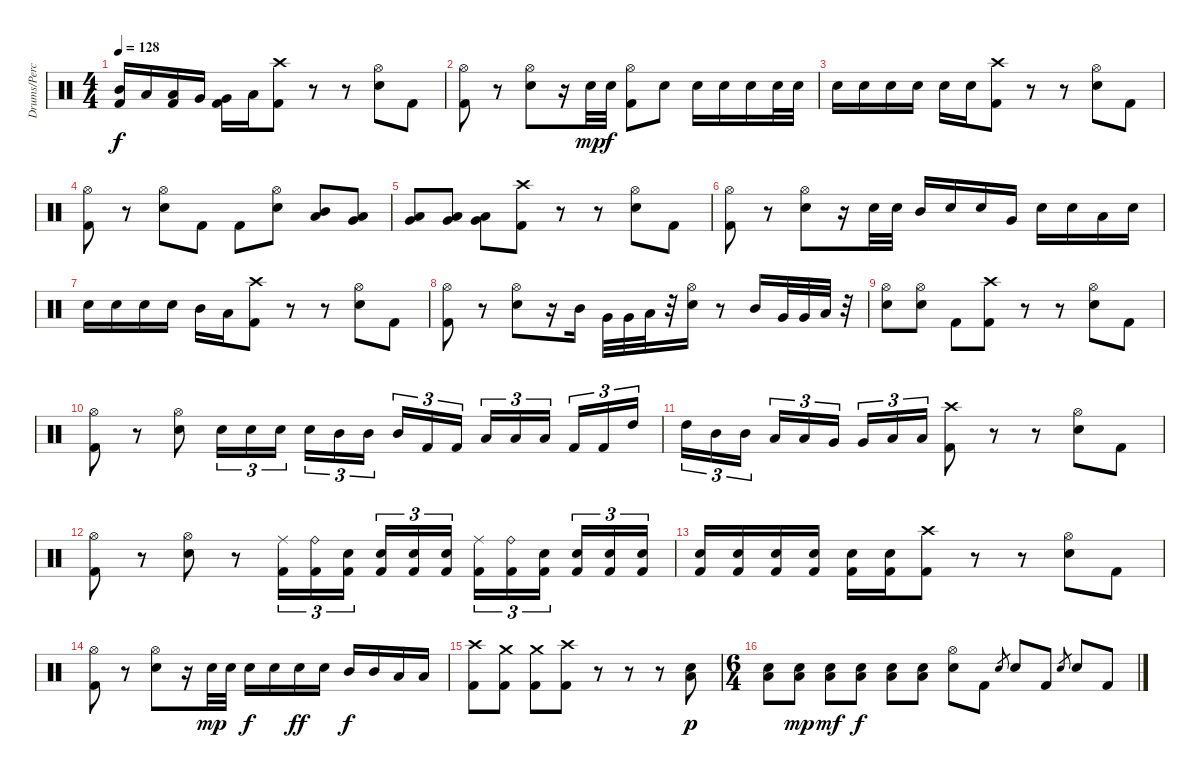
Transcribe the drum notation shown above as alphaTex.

\track ("Drums/Percussion" "Drums/Perc") {instrument percussion}
\staff {score}
\articulation defaults
\ts (4 4)
\tempo 128
\clef neutral
\ks c
("Mid Tom (hit)" "Kick (hit) 2").16{dy f} "Low Tom (hit)".16 ("Low Tom (hit)" "Kick (hit) 2").16 "Very Low Tom (hit)".16 ("Very Low Tom (hit)" "Kick (hit) 2").16 "Low Floor Tom (hit)".16 ("Crash high (hit)" "Kick (hit) 2").8 r.8 r.8 ("Hi-Hat (open)" "Electric Snare (hit)").8 "Kick (hit) 2".8 |
("Hi-Hat (open)" "Kick (hit) 2").8 r.8 ("Hi-Hat (open)" "Electric Snare (hit)").8 r.16 "Electric Snare (hit)".32{dy mp} "Electric Snare (hit)".32{dy f} ("Hi-Hat (open)" "Kick (hit) 2").8 "Electric Snare (hit)".8 "Electric Snare (hit)".16 "Electric Snare (hit)".16 "Electric Snare (hit)".16 "Electric Snare (hit)".32 "Electric Snare (hit)".32 |
"Electric Snare (hit)".16 "Electric Snare (hit)".16 "Electric Snare (hit)".16 "Electric Snare (hit)".16 "Electric Snare (hit)".16 "Electric Snare (hit)".16 ("Crash high (hit)" "Kick (hit) 2").8 r.8 r.8 ("Hi-Hat (open)" "Electric Snare (hit)").8 "Kick (hit) 2".8 |
("Hi-Hat (open)" "Kick (hit) 2").8 r.8 ("Hi-Hat (open)" "Electric Snare (hit)").8 "Kick (hit) 2".8 "Kick (hit) 2".8 ("Hi-Hat (open)" "Electric Snare (hit)").8 ("Mid Tom (hit)" "Low Tom (hit)").8 ("Low Tom (hit)" "Very Low Tom (hit)").8 |
("Very Low Tom (hit)" "Low Floor Tom (hit)").8 ("Very Low Tom (hit)" "Low Floor Tom (hit)").8 ("Very Low Tom (hit)" "Low Floor Tom (hit)").8 ("Crash high (hit)" "Kick (hit) 2").8 r.8 r.8 ("Hi-Hat (open)" "Electric Snare (hit)").8 "Kick (hit) 2".8 |
("Hi-Hat (open)" "Kick (hit) 2").8 r.8 ("Hi-Hat (open)" "Electric Snare (hit)").8 r.16 "Electric Snare (hit)".32 "Electric Snare (hit)".32 "Mid Tom (hit)".16 "Electric Snare (hit)".16 "Electric Snare (hit)".16 "Very Low Tom (hit)".16 "Electric Snare (hit)".16 "Electric Snare (hit)".16 "Low Tom (hit)".16 "Electric Snare (hit)".16 |
"Electric Snare (hit)".16 "Electric Snare (hit)".16 "Electric Snare (hit)".16 "Electric Snare (hit)".16 "Mid Tom (hit)".16 "Low Tom (hit)".16 ("Crash high (hit)" "Kick (hit) 2").8 r.8 r.8 ("Hi-Hat (open)" "Electric Snare (hit)").8 "Kick (hit) 2".8 |
("Hi-Hat (open)" "Kick (hit) 2").8 r.8 ("Hi-Hat (open)" "Electric Snare (hit)").8 r.16 "Mid Tom (hit)".16 "Very Low Tom (hit)".32 "Very Low Tom (hit)".32 "Low Floor Tom (hit)".32 r.32 ("Hi-Hat (open)" "Electric Snare (hit)").16 r.8 "Mid Tom (hit)".16 "Very Low Tom (hit)".32 "Very Low Tom (hit)".32 "Low Floor Tom (hit)".32 r.32 |
("Hi-Hat (open)" "Electric Snare (hit)").8 ("Hi-Hat (open)" "Electric Snare (hit)").8 "Kick (hit) 2".8 ("Crash high (hit)" "Kick (hit) 2").8 r.8 r.8 ("Hi-Hat (open)" "Electric Snare (hit)").8 "Kick (hit) 2".8 |
("Hi-Hat (open)" "Kick (hit) 2").8 r.8 ("Hi-Hat (open)" "Electric Snare (hit)").8 "Electric Snare (hit)".16{tu (3 2)} "Electric Snare (hit)".16{tu (3 2)} "Electric Snare (hit)".16{tu (3 2)} "Electric Snare (hit)".16{tu (3 2)} "Mid Tom (hit)".16{tu (3 2)} "Mid Tom (hit)".16{tu (3 2)} "Mid Tom (hit)".16{tu (3 2)} "Kick (hit) 2".16{tu (3 2)} "Kick (hit) 2".16{tu (3 2)} "Low Tom (hit)".16{tu (3 2)} "Low Tom (hit)".16{tu (3 2)} "Low Tom (hit)".16{tu (3 2)} "Kick (hit) 2".16{tu (3 2)} "Kick (hit) 2".16{tu (3 2)} "High Tom (hit)".16{tu (3 2)} |
"High Tom (hit)".16{tu (3 2)} "Mid Tom (hit)".16{tu (3 2)} "Mid Tom (hit)".16{tu (3 2)} "Low Tom (hit)".16{tu (3 2)} "Low Tom (hit)".16{tu (3 2)} "Very Low Tom (hit)".16{tu (3 2)} "Very Low Tom (hit)".16{tu (3 2)} "Low Floor Tom (hit)".16{tu (3 2)} "Low Floor Tom (hit)".16{tu (3 2)} ("Crash high (hit)" "Kick (hit) 2").8 r.8 r.8 ("Hi-Hat (open)" "Electric Snare (hit)").8 "Kick (hit) 2".8 |
("Hi-Hat (open)" "Kick (hit) 2").8 r.8 ("Hi-Hat (open)" "Electric Snare (hit)").8 r.8 ("Ride (middle)" "Kick (hit) 2").16{tu (3 2)} ("Ride (bell)" "Kick (hit) 2").16{tu (3 2)} ("Electric Snare (hit)" "Kick (hit) 2").16{tu (3 2)} ("Electric Snare (hit)" "Kick (hit) 2").16{tu (3 2)} ("Electric Snare (hit)" "Kick (hit) 2").16{tu (3 2)} ("Electric Snare (hit)" "Kick (hit) 2").16{tu (3 2)} ("Ride (middle)" "Kick (hit) 2").16{tu (3 2)} ("Ride (bell)" "Kick (hit) 2").16{tu (3 2)} ("Electric Snare (hit)" "Kick (hit) 2").16{tu (3 2)} ("Electric Snare (hit)" "Kick (hit) 2").16{tu (3 2)} ("Electric Snare (hit)" "Kick (hit) 2").16{tu (3 2)} ("Electric Snare (hit)" "Kick (hit) 2").16{tu (3 2)} |
("Electric Snare (hit)" "Kick (hit) 2").16 ("Electric Snare (hit)" "Kick (hit) 2").16 ("Electric Snare (hit)" "Kick (hit) 2").16 ("Electric Snare (hit)" "Kick (hit) 2").16 ("Electric Snare (hit)" "Kick (hit) 2").16 ("Electric Snare (hit)" "Kick (hit) 2").16 ("Crash high (hit)" "Kick (hit) 2").8 r.8 r.8 ("Hi-Hat (open)" "Electric Snare (hit)").8 "Kick (hit) 2".8 |
("Hi-Hat (open)" "Kick (hit) 2").8 r.8 ("Hi-Hat (open)" "Electric Snare (hit)").8 r.16 "Electric Snare (hit)".32{dy mp} "Electric Snare (hit)".32 "Electric Snare (hit)".16{dy f} "Electric Snare (hit)".16 "Electric Snare (hit)".16{dy ff} "Electric Snare (hit)".16 "Mid Tom (hit)".16{dy f} "Mid Tom (hit)".16 "Low Tom (hit)".16 "Low Tom (hit)".16 |
("Crash high (hit)" "Kick (hit) 2").8 ("Crash medium (hit)" "Kick (hit) 2").8 ("Crash medium (hit)" "Kick (hit) 2").8 ("Crash high (hit)" "Kick (hit) 2").8 r.8 r.8 r.8 ("Electric Snare (hit)" "Low Tom (hit)").8{dy p} |
\ts (6 4)
("Electric Snare (hit)" "Low Tom (hit)").8 ("Electric Snare (hit)" "Low Tom (hit)").8{dy mp} ("Electric Snare (hit)" "Low Tom (hit)").8{dy mf} ("Electric Snare (hit)" "Low Tom (hit)").8{dy f} ("Electric Snare (hit)" "Low Tom (hit)").8 ("Electric Snare (hit)" "Low Tom (hit)").8 ("Hi-Hat (open)" "Electric Snare (hit)").8 "Kick (hit) 2".8 "Electric Snare (hit)".8{gr} "Electric Snare (hit)".8 "Kick (hit) 2".8 "Electric Snare (hit)".8{gr} "Electric Snare (hit)".8 "Kick (hit) 2".8
